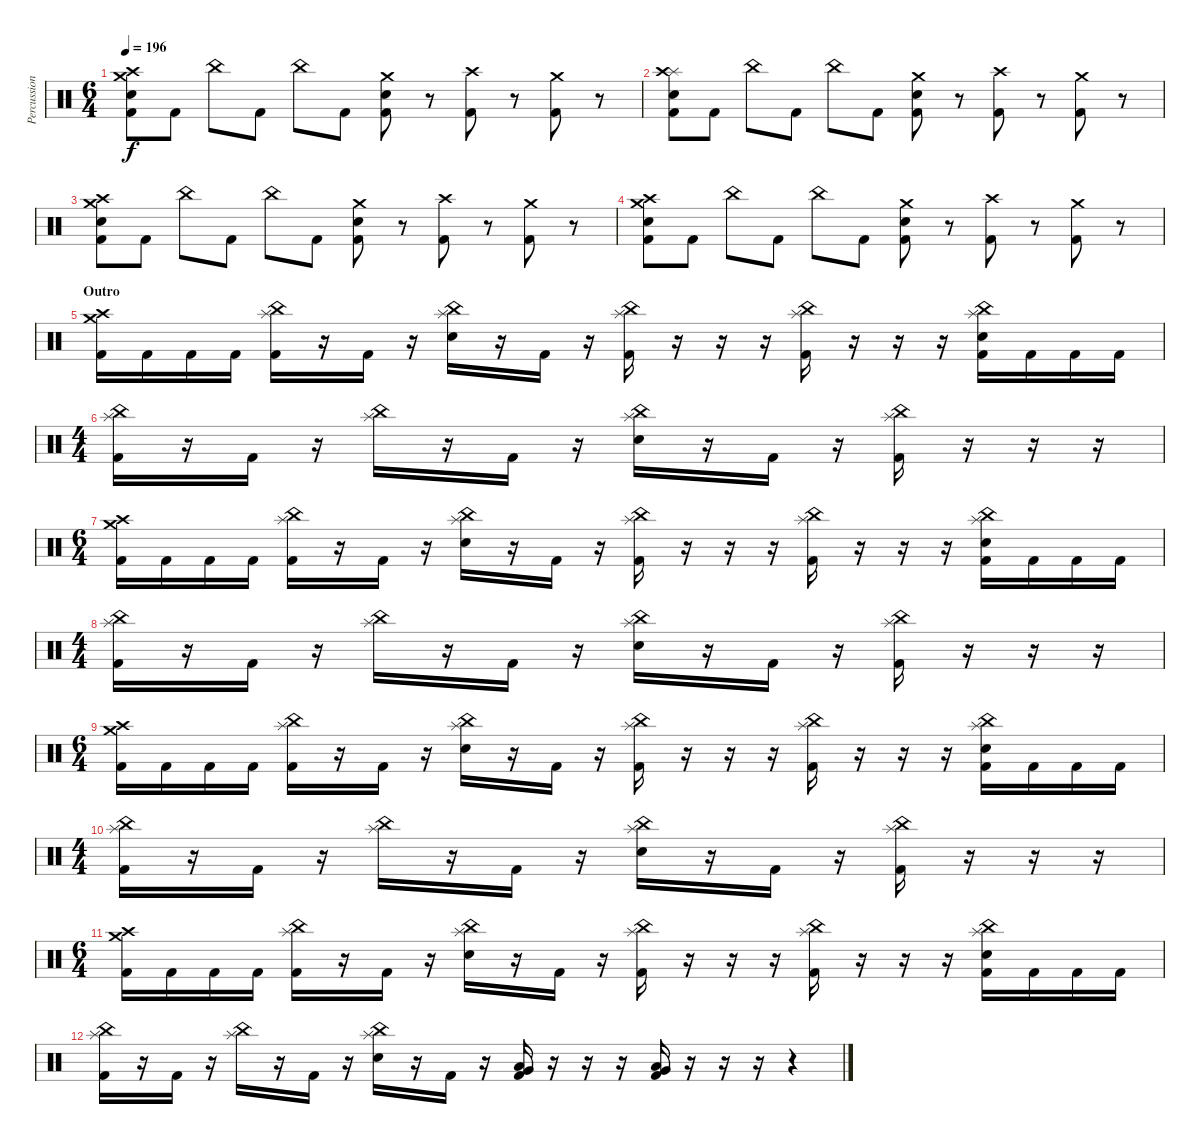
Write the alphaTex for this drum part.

\track ("Percussion" "Percussion") {instrument percussion}
\staff {score}
\articulation defaults
\ts (6 4)
\tempo 196
\clef neutral
\ks c
("Crash medium (hit)" "Crash high (hit)" "Electric Snare (hit)" "Kick (hit) 2").8{dy f} "Kick (hit) 2".8 "China (hit)".8 "Kick (hit) 2".8 "China (hit)".8 "Kick (hit) 2".8 ("Crash medium (hit)" "Electric Snare (hit)" "Kick (hit) 2").8 r.8 ("Crash high (hit)" "Kick (hit) 2").8 r.8 ("Crash medium (hit)" "Kick (hit) 2").8 r.8 |
("Splash (hit)" "Crash high (hit)" "Electric Snare (hit)" "Kick (hit) 2").8 "Kick (hit) 2".8 "China (hit)".8 "Kick (hit) 2".8 "China (hit)".8 "Kick (hit) 2".8 ("Crash medium (hit)" "Electric Snare (hit)" "Kick (hit) 2").8 r.8 ("Crash high (hit)" "Kick (hit) 2").8 r.8 ("Crash medium (hit)" "Kick (hit) 2").8 r.8 |
("Crash medium (hit)" "Crash high (hit)" "Electric Snare (hit)" "Kick (hit) 2").8 "Kick (hit) 2".8 "China (hit)".8 "Kick (hit) 2".8 "China (hit)".8 "Kick (hit) 2".8 ("Crash medium (hit)" "Electric Snare (hit)" "Kick (hit) 2").8 r.8 ("Crash high (hit)" "Kick (hit) 2").8 r.8 ("Crash medium (hit)" "Kick (hit) 2").8 r.8 |
("Crash medium (hit)" "Crash high (hit)" "Electric Snare (hit)" "Kick (hit) 2").8 "Kick (hit) 2".8 "China (hit)".8 "Kick (hit) 2".8 "China (hit)".8 "Kick (hit) 2".8 ("Crash medium (hit)" "Electric Snare (hit)" "Kick (hit) 2").8 r.8 ("Crash high (hit)" "Kick (hit) 2").8 r.8 ("Crash medium (hit)" "Kick (hit) 2").8 r.8 |
\section ("" "Outro")
("Crash medium (hit)" "Crash high (hit)" "Kick (hit) 2").16 "Kick (hit) 2".16 "Kick (hit) 2".16 "Kick (hit) 2".16 ("Splash (hit)" "China (hit)" "Kick (hit) 2").16 r.16 "Kick (hit) 2".16 r.16 ("Splash (hit)" "China (hit)" "Electric Snare (hit)").16 r.16 "Kick (hit) 2".16 r.16 ("Splash (hit)" "China (hit)" "Kick (hit) 2").16 r.16 r.16 r.16 ("Splash (hit)" "China (hit)" "Kick (hit) 2").16 r.16 r.16 r.16 ("Splash (hit)" "China (hit)" "Electric Snare (hit)" "Kick (hit) 2").16 "Kick (hit) 2".16 "Kick (hit) 2".16 "Kick (hit) 2".16 |
\ts (4 4)
("Splash (hit)" "China (hit)" "Kick (hit) 2").16 r.16 "Kick (hit) 2".16 r.16 ("Splash (hit)" "China (hit)").16 r.16 "Kick (hit) 2".16 r.16 ("Splash (hit)" "China (hit)" "Electric Snare (hit)").16 r.16 "Kick (hit) 2".16 r.16 ("Splash (hit)" "China (hit)" "Kick (hit) 2").16 r.16 r.16 r.16 |
\ts (6 4)
("Crash medium (hit)" "Crash high (hit)" "Kick (hit) 2").16 "Kick (hit) 2".16 "Kick (hit) 2".16 "Kick (hit) 2".16 ("Splash (hit)" "China (hit)" "Kick (hit) 2").16 r.16 "Kick (hit) 2".16 r.16 ("Splash (hit)" "China (hit)" "Electric Snare (hit)").16 r.16 "Kick (hit) 2".16 r.16 ("Splash (hit)" "China (hit)" "Kick (hit) 2").16 r.16 r.16 r.16 ("Splash (hit)" "China (hit)" "Kick (hit) 2").16 r.16 r.16 r.16 ("Splash (hit)" "China (hit)" "Electric Snare (hit)" "Kick (hit) 2").16 "Kick (hit) 2".16 "Kick (hit) 2".16 "Kick (hit) 2".16 |
\ts (4 4)
("Splash (hit)" "China (hit)" "Kick (hit) 2").16 r.16 "Kick (hit) 2".16 r.16 ("Splash (hit)" "China (hit)").16 r.16 "Kick (hit) 2".16 r.16 ("Splash (hit)" "China (hit)" "Electric Snare (hit)").16 r.16 "Kick (hit) 2".16 r.16 ("Splash (hit)" "China (hit)" "Kick (hit) 2").16 r.16 r.16 r.16 |
\ts (6 4)
("Crash medium (hit)" "Crash high (hit)" "Kick (hit) 2").16 "Kick (hit) 2".16 "Kick (hit) 2".16 "Kick (hit) 2".16 ("Splash (hit)" "China (hit)" "Kick (hit) 2").16 r.16 "Kick (hit) 2".16 r.16 ("Splash (hit)" "China (hit)" "Electric Snare (hit)").16 r.16 "Kick (hit) 2".16 r.16 ("Splash (hit)" "China (hit)" "Kick (hit) 2").16 r.16 r.16 r.16 ("Splash (hit)" "China (hit)" "Kick (hit) 2").16 r.16 r.16 r.16 ("Splash (hit)" "China (hit)" "Electric Snare (hit)" "Kick (hit) 2").16 "Kick (hit) 2".16 "Kick (hit) 2".16 "Kick (hit) 2".16 |
\ts (4 4)
("Splash (hit)" "China (hit)" "Kick (hit) 2").16 r.16 "Kick (hit) 2".16 r.16 ("Splash (hit)" "China (hit)").16 r.16 "Kick (hit) 2".16 r.16 ("Splash (hit)" "China (hit)" "Electric Snare (hit)").16 r.16 "Kick (hit) 2".16 r.16 ("Splash (hit)" "China (hit)" "Kick (hit) 2").16 r.16 r.16 r.16 |
\ts (6 4)
("Crash medium (hit)" "Crash high (hit)" "Kick (hit) 2").16 "Kick (hit) 2".16 "Kick (hit) 2".16 "Kick (hit) 2".16 ("Splash (hit)" "China (hit)" "Kick (hit) 2").16 r.16 "Kick (hit) 2".16 r.16 ("Splash (hit)" "China (hit)" "Electric Snare (hit)").16 r.16 "Kick (hit) 2".16 r.16 ("Splash (hit)" "China (hit)" "Kick (hit) 2").16 r.16 r.16 r.16 ("Splash (hit)" "China (hit)" "Kick (hit) 2").16 r.16 r.16 r.16 ("Splash (hit)" "China (hit)" "Electric Snare (hit)" "Kick (hit) 2").16 "Kick (hit) 2".16 "Kick (hit) 2".16 "Kick (hit) 2".16 |
("Splash (hit)" "China (hit)" "Kick (hit) 2").16 r.16 "Kick (hit) 2".16 r.16 ("Splash (hit)" "China (hit)").16 r.16 "Kick (hit) 2".16 r.16 ("Splash (hit)" "China (hit)" "Electric Snare (hit)").16 r.16 "Kick (hit) 2".16 r.16 ("Very Low Tom (hit)" "Low Floor Tom (hit)" "Kick (hit) 2").16 r.16 r.16 r.16 ("Very Low Tom (hit)" "Low Floor Tom (hit)" "Kick (hit) 2").16 r.16 r.16 r.16 r.4
